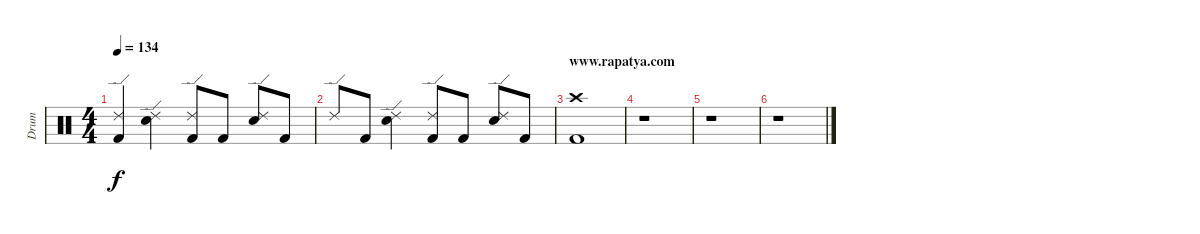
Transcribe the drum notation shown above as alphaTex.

\track ("Drum" "Drum") {instrument percussion}
\staff {score}
\articulation defaults
\ts (4 4)
\tempo 134
\clef neutral
\ks c
("Kick (hit) 2" "Ride (edge) 2").4{dy f} ("Electric Snare (hit)" "Ride (edge) 2").4 ("Ride (edge) 2" "Kick (hit) 2").8 "Kick (hit) 2".8 ("Electric Snare (hit)" "Ride (edge) 2").8 "Kick (hit) 2".8 |
"Ride (edge) 2".8 "Kick (hit) 2".8 ("Electric Snare (hit)" "Ride (edge) 2").4 ("Kick (hit) 2" "Ride (edge) 2").8 "Kick (hit) 2".8 ("Ride (edge) 2" "Electric Snare (hit)").8 "Kick (hit) 2".8 |
\section ("" "www.rapatya.com")
("Kick (hit) 2" "Crash high (hit)").1 |
r.1 |
r.1 |
r.1
